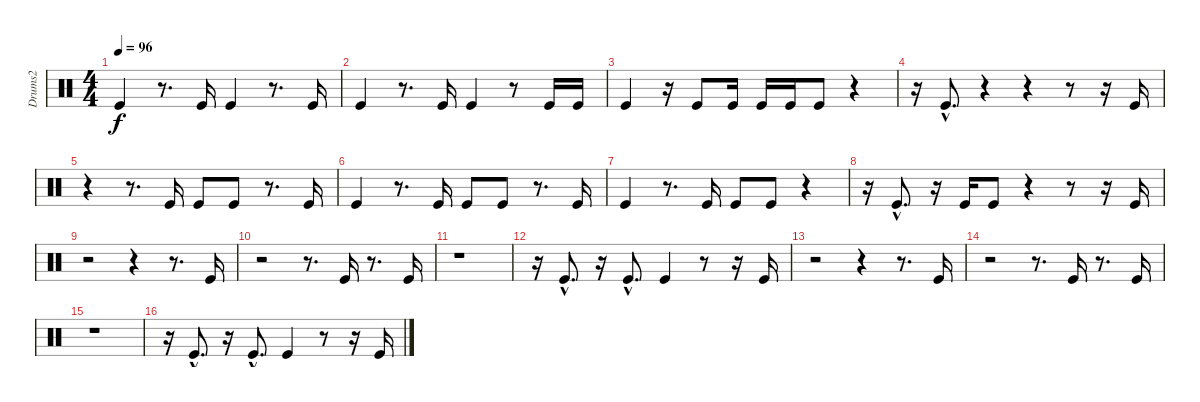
\track ("Drums2" "Drums2") {instrument percussion}
\staff {score}
\articulation defaults
\ts (4 4)
\tempo 96
\clef neutral
\ks c "Kick (hit)".4{dy f}
r.8{d} "Kick (hit)".16 "Kick (hit)".4 r.8{d} "Kick (hit)".16 |
"Kick (hit)".4 r.8{d} "Kick (hit)".16 "Kick (hit)".4 r.8 "Kick (hit)".16 "Kick (hit)".16 |
"Kick (hit)".4 r.16 "Kick (hit)".8 "Kick (hit)".16 "Kick (hit)".16 "Kick (hit)".16 "Kick (hit)".8 r.4 |
r.16 "Kick (hit)"{hac}.8{d} r.4 r.4 r.8 r.16 "Kick (hit)".16 |
r.4 r.8{d} "Kick (hit)".16 "Kick (hit)".8 "Kick (hit)".8 r.8{d} "Kick (hit)".16 |
"Kick (hit)".4 r.8{d} "Kick (hit)".16 "Kick (hit)".8 "Kick (hit)".8 r.8{d} "Kick (hit)".16 |
"Kick (hit)".4 r.8{d} "Kick (hit)".16 "Kick (hit)".8 "Kick (hit)".8 r.4 |
r.16 "Kick (hit)"{hac}.8{d} r.16 "Kick (hit)".16 "Kick (hit)".8 r.4 r.8 r.16 "Kick (hit)".16 |
r.2 r.4 r.8{d} "Kick (hit)".16 |
r.2 r.8{d} "Kick (hit)".16 r.8{d} "Kick (hit)".16 |
r.1 |
r.16 "Kick (hit)"{hac}.8{d} r.16 "Kick (hit)"{hac}.8{d} "Kick (hit)".4 r.8 r.16 "Kick (hit)".16 |
r.2 r.4 r.8{d} "Kick (hit)".16 |
r.2 r.8{d} "Kick (hit)".16 r.8{d} "Kick (hit)".16 |
r.1 |
r.16 "Kick (hit)"{hac}.8{d} r.16 "Kick (hit)"{hac}.8{d} "Kick (hit)".4 r.8 r.16 "Kick (hit)".16
